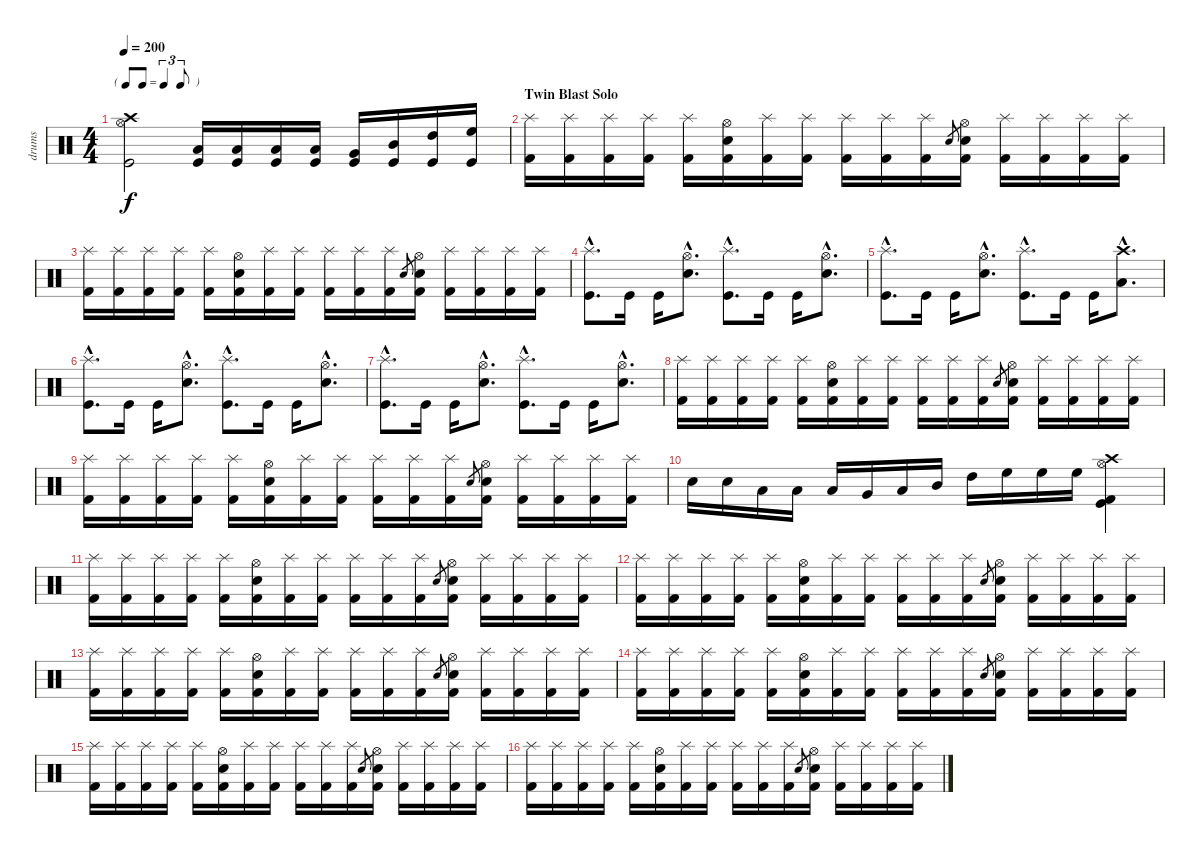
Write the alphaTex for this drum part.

\track ("drums" "drums") {instrument percussion}
\staff {score}
\articulation defaults
\ts (4 4)
\tf triplet8th
\tempo 200
\clef neutral
\ks c
("Crash high (hit)" "Hi-Hat (open)" "Kick (hit)").2{dy f} ("Low Floor Tom (hit)" "Kick (hit)").16 ("Low Floor Tom (hit)" "Kick (hit)").16 ("Low Floor Tom (hit)" "Kick (hit)").16 ("Low Tom (hit)" "Kick (hit)").16 ("Very Low Tom (hit)" "Kick (hit)").16 ("Mid Tom (hit)" "Kick (hit)").16 ("High Tom (hit)" "Kick (hit)").16 ("High Floor Tom (hit)" "Kick (hit)").16 |
\section ("" "Twin Blast Solo")
("Kick (hit) 2" "Splash (hit)").16 ("Kick (hit) 2" "Splash (hit)").16 ("Kick (hit) 2" "Splash (hit)").16 ("Kick (hit) 2" "Splash (hit)").16 ("Kick (hit) 2" "Splash (hit)").16 ("Kick (hit) 2" "Electric Snare (hit)" "Hi-Hat (open)").16 ("Kick (hit) 2" "Splash (hit)").16 ("Kick (hit) 2" "Splash (hit)").16 ("Kick (hit) 2" "Splash (hit)").16 ("Kick (hit) 2" "Splash (hit)").16 ("Kick (hit) 2" "Splash (hit)").16 "Electric Snare (hit)".8{gr} ("Kick (hit) 2" "Electric Snare (hit)" "Hi-Hat (open)").16 ("Kick (hit) 2" "Splash (hit)").16 ("Kick (hit) 2" "Splash (hit)").16 ("Kick (hit) 2" "Splash (hit)").16 ("Kick (hit) 2" "Splash (hit)").16 |
("Kick (hit) 2" "Splash (hit)").16 ("Kick (hit) 2" "Splash (hit)").16 ("Kick (hit) 2" "Splash (hit)").16 ("Kick (hit) 2" "Splash (hit)").16 ("Kick (hit) 2" "Splash (hit)").16 ("Kick (hit) 2" "Electric Snare (hit)" "Hi-Hat (open)").16 ("Kick (hit) 2" "Splash (hit)").16 ("Kick (hit) 2" "Splash (hit)").16 ("Kick (hit) 2" "Splash (hit)").16 ("Kick (hit) 2" "Splash (hit)").16 ("Kick (hit) 2" "Splash (hit)").16 "Electric Snare (hit)".8{gr} ("Kick (hit) 2" "Electric Snare (hit)" "Hi-Hat (open)").16 ("Kick (hit) 2" "Splash (hit)").16 ("Kick (hit) 2" "Splash (hit)").16 ("Kick (hit) 2" "Splash (hit)").16 ("Kick (hit) 2" "Splash (hit)").16 |
("Splash (hit)"{hac} "Kick (hit)"{hac}).8{d} "Kick (hit)".16 "Kick (hit)".16 ("Hi-Hat (open)"{hac} "Electric Snare (hit)"{hac}).8{d} ("Splash (hit)"{hac} "Kick (hit)"{hac}).8{d} "Kick (hit)".16 "Kick (hit)".16 ("Hi-Hat (open)"{hac} "Electric Snare (hit)"{hac}).8{d} |
("Splash (hit)"{hac} "Kick (hit)"{hac}).8{d} "Kick (hit)".16 "Kick (hit)".16 ("Hi-Hat (open)"{hac} "Electric Snare (hit)"{hac}).8{d} ("Splash (hit)"{hac} "Kick (hit)"{hac}).8{d} "Kick (hit)".16 "Kick (hit)".16 ("Crash high (hit)"{hac} "Low Floor Tom (hit)"{hac}).8{d} |
("Splash (hit)"{hac} "Kick (hit)"{hac}).8{d} "Kick (hit)".16 "Kick (hit)".16 ("Hi-Hat (open)"{hac} "Electric Snare (hit)"{hac}).8{d} ("Splash (hit)"{hac} "Kick (hit)"{hac}).8{d} "Kick (hit)".16 "Kick (hit)".16 ("Hi-Hat (open)"{hac} "Electric Snare (hit)"{hac}).8{d} |
("Splash (hit)"{hac} "Kick (hit)"{hac}).8{d} "Kick (hit)".16 "Kick (hit)".16 ("Hi-Hat (open)"{hac} "Electric Snare (hit)"{hac}).8{d} ("Splash (hit)"{hac} "Kick (hit)"{hac}).8{d} "Kick (hit)".16 "Kick (hit)".16 ("Hi-Hat (open)"{hac} "Electric Snare (hit)"{hac}).8{d} |
("Kick (hit) 2" "Splash (hit)").16 ("Kick (hit) 2" "Splash (hit)").16 ("Kick (hit) 2" "Splash (hit)").16 ("Kick (hit) 2" "Splash (hit)").16 ("Kick (hit) 2" "Splash (hit)").16 ("Kick (hit) 2" "Electric Snare (hit)" "Hi-Hat (open)").16 ("Kick (hit) 2" "Splash (hit)").16 ("Kick (hit) 2" "Splash (hit)").16 ("Kick (hit) 2" "Splash (hit)").16 ("Kick (hit) 2" "Splash (hit)").16 ("Kick (hit) 2" "Splash (hit)").16 "Electric Snare (hit)".8{gr} ("Kick (hit) 2" "Electric Snare (hit)" "Hi-Hat (open)").16 ("Kick (hit) 2" "Splash (hit)").16 ("Kick (hit) 2" "Splash (hit)").16 ("Kick (hit) 2" "Splash (hit)").16 ("Kick (hit) 2" "Splash (hit)").16 |
("Kick (hit) 2" "Splash (hit)").16 ("Kick (hit) 2" "Splash (hit)").16 ("Kick (hit) 2" "Splash (hit)").16 ("Kick (hit) 2" "Splash (hit)").16 ("Kick (hit) 2" "Splash (hit)").16 ("Kick (hit) 2" "Electric Snare (hit)" "Hi-Hat (open)").16 ("Kick (hit) 2" "Splash (hit)").16 ("Kick (hit) 2" "Splash (hit)").16 ("Kick (hit) 2" "Splash (hit)").16 ("Kick (hit) 2" "Splash (hit)").16 ("Kick (hit) 2" "Splash (hit)").16 "Electric Snare (hit)".8{gr} ("Kick (hit) 2" "Electric Snare (hit)" "Hi-Hat (open)").16 ("Kick (hit) 2" "Splash (hit)").16 ("Kick (hit) 2" "Splash (hit)").16 ("Kick (hit) 2" "Splash (hit)").16 ("Kick (hit) 2" "Splash (hit)").16 |
"Electric Snare (hit)".16 "Snare (hit) 2".16 "Low Floor Tom (hit)".16 "Low Floor Tom (hit)".16 "Low Floor Tom (hit)".16 "Very Low Tom (hit)".16 "Low Tom (hit)".16 "Mid Tom (hit)".16 "High Tom (hit)".16 "High Floor Tom (hit)".16 "High Floor Tom (hit)".16 "High Floor Tom (hit)".16 ("Crash high (hit)" "Hi-Hat (open)" "Kick (hit)" "Kick (hit) 2").4 |
("Kick (hit) 2" "Splash (hit)").16 ("Kick (hit) 2" "Splash (hit)").16 ("Kick (hit) 2" "Splash (hit)").16 ("Kick (hit) 2" "Splash (hit)").16 ("Kick (hit) 2" "Splash (hit)").16 ("Kick (hit) 2" "Electric Snare (hit)" "Hi-Hat (open)").16 ("Kick (hit) 2" "Splash (hit)").16 ("Kick (hit) 2" "Splash (hit)").16 ("Kick (hit) 2" "Splash (hit)").16 ("Kick (hit) 2" "Splash (hit)").16 ("Kick (hit) 2" "Splash (hit)").16 "Electric Snare (hit)".8{gr} ("Kick (hit) 2" "Electric Snare (hit)" "Hi-Hat (open)").16 ("Kick (hit) 2" "Splash (hit)").16 ("Kick (hit) 2" "Splash (hit)").16 ("Kick (hit) 2" "Splash (hit)").16 ("Kick (hit) 2" "Splash (hit)").16 |
("Kick (hit) 2" "Splash (hit)").16 ("Kick (hit) 2" "Splash (hit)").16 ("Kick (hit) 2" "Splash (hit)").16 ("Kick (hit) 2" "Splash (hit)").16 ("Kick (hit) 2" "Splash (hit)").16 ("Kick (hit) 2" "Electric Snare (hit)" "Hi-Hat (open)").16 ("Kick (hit) 2" "Splash (hit)").16 ("Kick (hit) 2" "Splash (hit)").16 ("Kick (hit) 2" "Splash (hit)").16 ("Kick (hit) 2" "Splash (hit)").16 ("Kick (hit) 2" "Splash (hit)").16 "Electric Snare (hit)".8{gr} ("Kick (hit) 2" "Electric Snare (hit)" "Hi-Hat (open)").16 ("Kick (hit) 2" "Splash (hit)").16 ("Kick (hit) 2" "Splash (hit)").16 ("Kick (hit) 2" "Splash (hit)").16 ("Kick (hit) 2" "Splash (hit)").16 |
("Kick (hit) 2" "Splash (hit)").16 ("Kick (hit) 2" "Splash (hit)").16 ("Kick (hit) 2" "Splash (hit)").16 ("Kick (hit) 2" "Splash (hit)").16 ("Kick (hit) 2" "Splash (hit)").16 ("Kick (hit) 2" "Electric Snare (hit)" "Hi-Hat (open)").16 ("Kick (hit) 2" "Splash (hit)").16 ("Kick (hit) 2" "Splash (hit)").16 ("Kick (hit) 2" "Splash (hit)").16 ("Kick (hit) 2" "Splash (hit)").16 ("Kick (hit) 2" "Splash (hit)").16 "Electric Snare (hit)".8{gr} ("Kick (hit) 2" "Electric Snare (hit)" "Hi-Hat (open)").16 ("Kick (hit) 2" "Splash (hit)").16 ("Kick (hit) 2" "Splash (hit)").16 ("Kick (hit) 2" "Splash (hit)").16 ("Kick (hit) 2" "Splash (hit)").16 |
("Kick (hit) 2" "Splash (hit)").16 ("Kick (hit) 2" "Splash (hit)").16 ("Kick (hit) 2" "Splash (hit)").16 ("Kick (hit) 2" "Splash (hit)").16 ("Kick (hit) 2" "Splash (hit)").16 ("Kick (hit) 2" "Electric Snare (hit)" "Hi-Hat (open)").16 ("Kick (hit) 2" "Splash (hit)").16 ("Kick (hit) 2" "Splash (hit)").16 ("Kick (hit) 2" "Splash (hit)").16 ("Kick (hit) 2" "Splash (hit)").16 ("Kick (hit) 2" "Splash (hit)").16 "Electric Snare (hit)".8{gr} ("Kick (hit) 2" "Electric Snare (hit)" "Hi-Hat (open)").16 ("Kick (hit) 2" "Splash (hit)").16 ("Kick (hit) 2" "Splash (hit)").16 ("Kick (hit) 2" "Splash (hit)").16 ("Kick (hit) 2" "Splash (hit)").16 |
("Kick (hit) 2" "Splash (hit)").16 ("Kick (hit) 2" "Splash (hit)").16 ("Kick (hit) 2" "Splash (hit)").16 ("Kick (hit) 2" "Splash (hit)").16 ("Kick (hit) 2" "Splash (hit)").16 ("Kick (hit) 2" "Electric Snare (hit)" "Hi-Hat (open)").16 ("Kick (hit) 2" "Splash (hit)").16 ("Kick (hit) 2" "Splash (hit)").16 ("Kick (hit) 2" "Splash (hit)").16 ("Kick (hit) 2" "Splash (hit)").16 ("Kick (hit) 2" "Splash (hit)").16 "Electric Snare (hit)".8{gr} ("Kick (hit) 2" "Electric Snare (hit)" "Hi-Hat (open)").16 ("Kick (hit) 2" "Splash (hit)").16 ("Kick (hit) 2" "Splash (hit)").16 ("Kick (hit) 2" "Splash (hit)").16 ("Kick (hit) 2" "Splash (hit)").16 |
("Kick (hit) 2" "Splash (hit)").16 ("Kick (hit) 2" "Splash (hit)").16 ("Kick (hit) 2" "Splash (hit)").16 ("Kick (hit) 2" "Splash (hit)").16 ("Kick (hit) 2" "Splash (hit)").16 ("Kick (hit) 2" "Electric Snare (hit)" "Hi-Hat (open)").16 ("Kick (hit) 2" "Splash (hit)").16 ("Kick (hit) 2" "Splash (hit)").16 ("Kick (hit) 2" "Splash (hit)").16 ("Kick (hit) 2" "Splash (hit)").16 ("Kick (hit) 2" "Splash (hit)").16 "Electric Snare (hit)".8{gr} ("Kick (hit) 2" "Electric Snare (hit)" "Hi-Hat (open)").16 ("Kick (hit) 2" "Splash (hit)").16 ("Kick (hit) 2" "Splash (hit)").16 ("Kick (hit) 2" "Splash (hit)").16 ("Kick (hit) 2" "Splash (hit)").16
